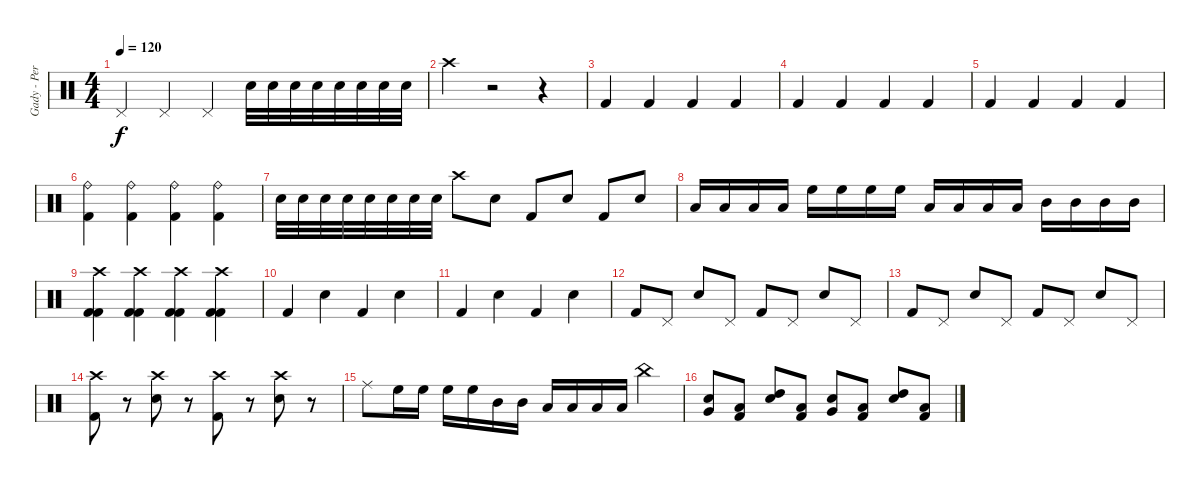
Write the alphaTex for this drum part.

\track ("Gady - Perkusja" "Gady - Per") {instrument percussion}
\staff {score}
\articulation defaults
\ts (4 4)
\tempo 120
\clef neutral
\ks c "Pedal Hi-Hat (hit)".4{dy f} "Pedal Hi-Hat (hit)".4 "Pedal Hi-Hat (hit)".4 "Snare (hit) 2".32 "Snare (hit) 2".32 "Snare (hit) 2".32 "Snare (hit) 2".32 "Snare (hit) 2".32 "Snare (hit) 2".32 "Snare (hit) 2".32 "Snare (hit) 2".32
|
"Crash high (hit)".4 r.2 r.4 |
"Kick (hit) 2".4 "Kick (hit) 2".4 "Kick (hit) 2".4 "Kick (hit) 2".4 |
"Kick (hit) 2".4 "Kick (hit) 2".4 "Kick (hit) 2".4 "Kick (hit) 2".4 |
"Kick (hit) 2".4 "Kick (hit) 2".4 "Kick (hit) 2".4 "Kick (hit) 2".4 |
("Ride (bell)" "Kick (hit) 2").4 ("Ride (bell)" "Kick (hit) 2").4 ("Ride (bell)" "Kick (hit) 2").4 ("Ride (bell)" "Kick (hit) 2").4 |
"Snare (hit) 2".32 "Snare (hit) 2".32 "Snare (hit) 2".32 "Snare (hit) 2".32 "Snare (hit) 2".32 "Snare (hit) 2".32 "Snare (hit) 2".32 "Snare (hit) 2".32 "Crash high (hit)".8 "Snare (hit) 2".8 "Kick (hit) 2".8 "Snare (hit) 2".8 "Kick (hit) 2".8 "Snare (hit) 2".8 |
"Low Tom (hit)".16 "Low Tom (hit)".16 "Low Tom (hit)".16 "Low Tom (hit)".16 "High Floor Tom (hit)".16 "High Floor Tom (hit)".16 "High Floor Tom (hit)".16 "High Floor Tom (hit)".16 "Low Floor Tom (hit)".16 "Low Floor Tom (hit)".16 "Low Floor Tom (hit)".16 "Low Floor Tom (hit)".16 "Mid Tom (hit)".16 "Mid Tom (hit)".16 "Mid Tom (hit)".16 "Mid Tom (hit)".16 |
("Crash high (hit)" "Kick (hit) 2" "Kick (hit) 2").4 ("Crash high (hit)" "Kick (hit) 2" "Kick (hit) 2").4 ("Crash high (hit)" "Kick (hit) 2" "Kick (hit) 2").4 ("Crash high (hit)" "Kick (hit) 2" "Kick (hit) 2").4 |
"Kick (hit) 2".4 "Snare (hit) 2".4 "Kick (hit) 2".4 "Snare (hit) 2".4 |
"Kick (hit) 2".4 "Snare (hit) 2".4 "Kick (hit) 2".4 "Snare (hit) 2".4 |
"Kick (hit) 2".8 "Pedal Hi-Hat (hit)".8 "Snare (hit) 2".8 "Pedal Hi-Hat (hit)".8 "Kick (hit) 2".8 "Pedal Hi-Hat (hit)".8 "Snare (hit) 2".8 "Pedal Hi-Hat (hit)".8 |
"Kick (hit) 2".8 "Pedal Hi-Hat (hit)".8 "Snare (hit) 2".8 "Pedal Hi-Hat (hit)".8 "Kick (hit) 2".8 "Pedal Hi-Hat (hit)".8 "Snare (hit) 2".8 "Pedal Hi-Hat (hit)".8 |
("Crash high (hit)" "Kick (hit) 2").8 r.8 ("Snare (hit) 2" "Crash high (hit)").8 r.8 ("Crash high (hit)" "Kick (hit) 2").8 r.8 ("Snare (hit) 2" "Crash high (hit)").8 r.8 |
"Ride (middle)".8 "High Floor Tom (hit)".16 "High Floor Tom (hit)".16 "High Floor Tom (hit)".16 "High Floor Tom (hit)".16 "Mid Tom (hit)".16 "Mid Tom (hit)".16 "Low Tom (hit)".16 "Low Tom (hit)".16 "Low Floor Tom (hit)".16 "Low Floor Tom (hit)".16 "China (hit)".4 |
("Very Low Tom (hit)" "Snare (hit) 2").8 ("Low Floor Tom (hit)" "Kick (hit) 2").8 ("High Tom (hit)" "Snare (hit) 2").8 ("Low Tom (hit)" "Kick (hit) 2").8 ("Very Low Tom (hit)" "Snare (hit) 2").8 ("Low Floor Tom (hit)" "Kick (hit) 2").8 ("High Tom (hit)" "Snare (hit) 2").8 ("Low Tom (hit)" "Kick (hit) 2").8
